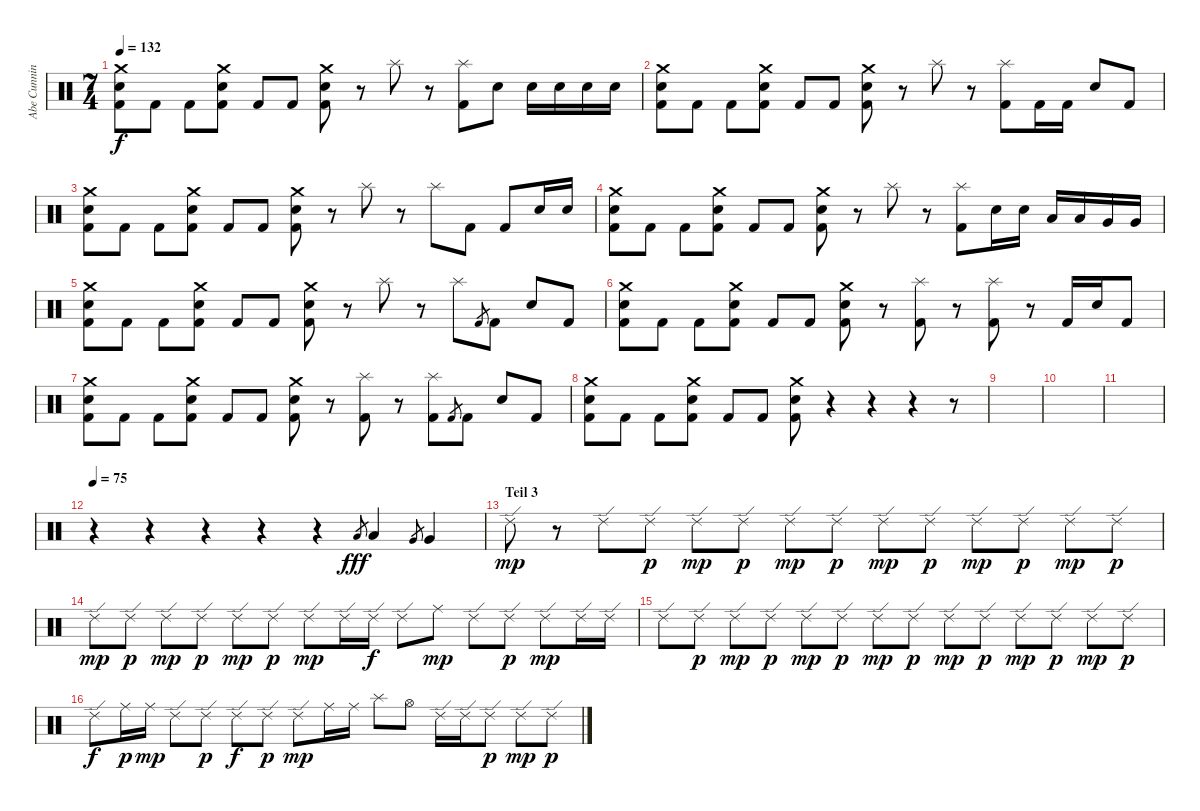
\track ("Abe Cunningham" "Abe Cunnin") {instrument percussion}
\staff {score}
\articulation defaults
\ts (7 4)
\tempo 132
\clef neutral
\ks c
("Crash medium (hit)" "Electric Snare (hit)" "Kick (hit) 2").8{dy f} "Kick (hit) 2".8 "Kick (hit) 2".8 ("Crash medium (hit)" "Electric Snare (hit)" "Kick (hit) 2").8 "Kick (hit) 2".8 "Kick (hit) 2".8 ("Crash medium (hit)" "Electric Snare (hit)" "Kick (hit) 2").8 r.8 "Splash (hit)".8 r.8 ("Splash (hit)" "Kick (hit) 2").8 "Electric Snare (hit)".8 "Electric Snare (hit)".16 "Electric Snare (hit)".16 "Electric Snare (hit)".16 "Electric Snare (hit)".16 |
("Crash medium (hit)" "Electric Snare (hit)" "Kick (hit) 2").8 "Kick (hit) 2".8 "Kick (hit) 2".8 ("Crash medium (hit)" "Electric Snare (hit)" "Kick (hit) 2").8 "Kick (hit) 2".8 "Kick (hit) 2".8 ("Crash medium (hit)" "Electric Snare (hit)" "Kick (hit) 2").8 r.8 "Splash (hit)".8 r.8 ("Splash (hit)" "Kick (hit) 2").8 "Kick (hit) 2".16 "Kick (hit) 2".16 "Electric Snare (hit)".8 "Kick (hit) 2".8 |
("Crash medium (hit)" "Electric Snare (hit)" "Kick (hit) 2").8 "Kick (hit) 2".8 "Kick (hit) 2".8 ("Crash medium (hit)" "Electric Snare (hit)" "Kick (hit) 2").8 "Kick (hit) 2".8 "Kick (hit) 2".8 ("Crash medium (hit)" "Electric Snare (hit)" "Kick (hit) 2").8 r.8 "Splash (hit)".8 r.8 "Splash (hit)".8 "Kick (hit) 2".8 "Kick (hit) 2".8 "Electric Snare (hit)".16 "Electric Snare (hit)".16 |
("Crash medium (hit)" "Electric Snare (hit)" "Kick (hit) 2").8 "Kick (hit) 2".8 "Kick (hit) 2".8 ("Crash medium (hit)" "Electric Snare (hit)" "Kick (hit) 2").8 "Kick (hit) 2".8 "Kick (hit) 2".8 ("Crash medium (hit)" "Electric Snare (hit)" "Kick (hit) 2").8 r.8 "Splash (hit)".8 r.8 ("Splash (hit)" "Kick (hit) 2").8 "Electric Snare (hit)".16 "Electric Snare (hit)".16 "Low Tom (hit)".16 "Low Tom (hit)".16 "Very Low Tom (hit)".16 "Very Low Tom (hit)".16 |
("Crash medium (hit)" "Electric Snare (hit)" "Kick (hit) 2").8 "Kick (hit) 2".8 "Kick (hit) 2".8 ("Crash medium (hit)" "Electric Snare (hit)" "Kick (hit) 2").8 "Kick (hit) 2".8 "Kick (hit) 2".8 ("Crash medium (hit)" "Electric Snare (hit)" "Kick (hit) 2").8 r.8 "Splash (hit)".8 r.8 "Splash (hit)".8 "Kick (hit) 2".8{gr} "Kick (hit) 2".8 "Electric Snare (hit)".8 "Kick (hit) 2".8 |
("Crash medium (hit)" "Electric Snare (hit)" "Kick (hit) 2").8 "Kick (hit) 2".8 "Kick (hit) 2".8 ("Crash medium (hit)" "Electric Snare (hit)" "Kick (hit) 2").8 "Kick (hit) 2".8 "Kick (hit) 2".8 ("Crash medium (hit)" "Electric Snare (hit)" "Kick (hit) 2").8 r.8 ("Splash (hit)" "Kick (hit) 2").8 r.8 ("Splash (hit)" "Kick (hit) 2").8 r.8 "Kick (hit) 2".16 "Electric Snare (hit)".16 "Kick (hit) 2".8 |
("Crash medium (hit)" "Electric Snare (hit)" "Kick (hit) 2").8 "Kick (hit) 2".8 "Kick (hit) 2".8 ("Crash medium (hit)" "Electric Snare (hit)" "Kick (hit) 2").8 "Kick (hit) 2".8 "Kick (hit) 2".8 ("Crash medium (hit)" "Electric Snare (hit)" "Kick (hit) 2").8 r.8 ("Splash (hit)" "Kick (hit) 2").8 r.8 ("Splash (hit)" "Kick (hit) 2").8 "Kick (hit) 2".8{gr} "Kick (hit) 2".8 "Electric Snare (hit)".8 "Kick (hit) 2".8 |
("Crash medium (hit)" "Electric Snare (hit)" "Kick (hit) 2").8 "Kick (hit) 2".8 "Kick (hit) 2".8 ("Crash medium (hit)" "Electric Snare (hit)" "Kick (hit) 2").8 "Kick (hit) 2".8 "Kick (hit) 2".8 ("Crash medium (hit)" "Electric Snare (hit)" "Kick (hit) 2").8 r.4 r.4 r.4 r.8 |
|
|
|
\tempo 75
r.4 r.4 r.4 r.4 r.4 "Low Tom (hit)".8{gr dy fff} "Low Tom (hit)".4 "Very Low Tom (hit)".8{gr} "Very Low Tom (hit)".4 |
\section ("" "Teil 3")
"Ride (edge) 2".8{dy mp} r.8 "Ride (edge) 2".8 "Ride (edge) 2".8{dy p} "Ride (edge) 2".8{dy mp} "Ride (edge) 2".8{dy p} "Ride (edge) 2".8{dy mp} "Ride (edge) 2".8{dy p} "Ride (edge) 2".8{dy mp} "Ride (edge) 2".8{dy p} "Ride (edge) 2".8{dy mp} "Ride (edge) 2".8{dy p} "Ride (edge) 2".8{dy mp} "Ride (edge) 2".8{dy p} |
"Ride (edge) 2".8{dy mp} "Ride (edge) 2".8{dy p} "Ride (edge) 2".8{dy mp} "Ride (edge) 2".8{dy p} "Ride (edge) 2".8{dy mp} "Ride (edge) 2".8{dy p} "Ride (edge) 2".8{dy mp} "Ride (edge) 2".16 "Ride (edge) 2".16{dy f} "Ride (edge) 2".8 "Ride (middle)".8{dy mp} "Ride (edge) 2".8 "Ride (edge) 2".8{dy p} "Ride (edge) 2".8{dy mp} "Ride (edge) 2".16 "Ride (edge) 2".16 |
"Ride (edge) 2".8 "Ride (edge) 2".8{dy p} "Ride (edge) 2".8{dy mp} "Ride (edge) 2".8{dy p} "Ride (edge) 2".8{dy mp} "Ride (edge) 2".8{dy p} "Ride (edge) 2".8{dy mp} "Ride (edge) 2".8{dy p} "Ride (edge) 2".8{dy mp} "Ride (edge) 2".8{dy p} "Ride (edge) 2".8{dy mp} "Ride (edge) 2".8{dy p} "Ride (edge) 2".8{dy mp} "Ride (edge) 2".8{dy p} |
"Ride (edge) 2".8{dy f} "Ride (middle)".16{dy p} "Ride (middle)".16{dy mp} "Ride (edge) 2".8 "Ride (edge) 2".8{dy p} "Ride (edge) 2".8{dy f} "Ride (edge) 2".8{dy p} "Ride (edge) 2".8{dy mp} "Ride (middle)".16 "Ride (middle)".16 "Splash (hit)".8 "Hi-Hat (open)".8 "Ride (edge) 2".16 "Ride (edge) 2".16 "Ride (edge) 2".8{dy p} "Ride (edge) 2".8{dy mp} "Ride (edge) 2".8{dy p}
